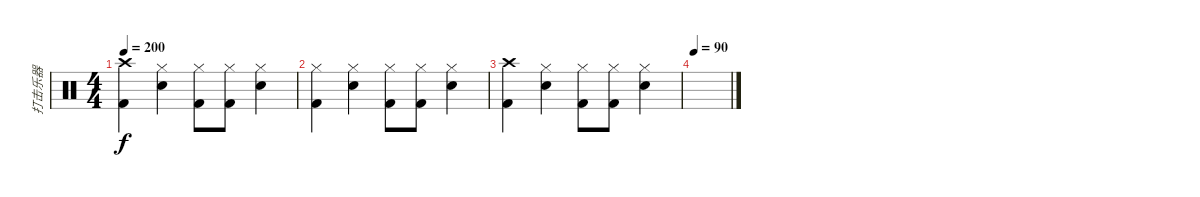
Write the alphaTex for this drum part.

\track ("打击乐器" "打击乐器") {instrument percussion}
\staff {score}
\articulation defaults
\ts (4 4)
\tempo 200
\clef neutral
\ks c
("Crash high (hit)" "Kick (hit) 2").4{dy f} ("Hi-Hat (closed)" "Snare (hit) 2").4 ("Hi-Hat (closed)" "Kick (hit) 2").8 ("Hi-Hat (closed)" "Kick (hit) 2").8 ("Hi-Hat (closed)" "Snare (hit) 2").4 |
("Hi-Hat (closed)" "Kick (hit) 2").4 ("Hi-Hat (closed)" "Snare (hit) 2").4 ("Hi-Hat (closed)" "Kick (hit) 2").8 ("Hi-Hat (closed)" "Kick (hit) 2").8 ("Hi-Hat (closed)" "Snare (hit) 2").4 |
("Crash high (hit)" "Kick (hit) 2").4 ("Hi-Hat (closed)" "Snare (hit) 2").4 ("Hi-Hat (closed)" "Kick (hit) 2").8 ("Hi-Hat (closed)" "Kick (hit) 2").8 ("Hi-Hat (closed)" "Snare (hit) 2").4 |
\tempo 90
